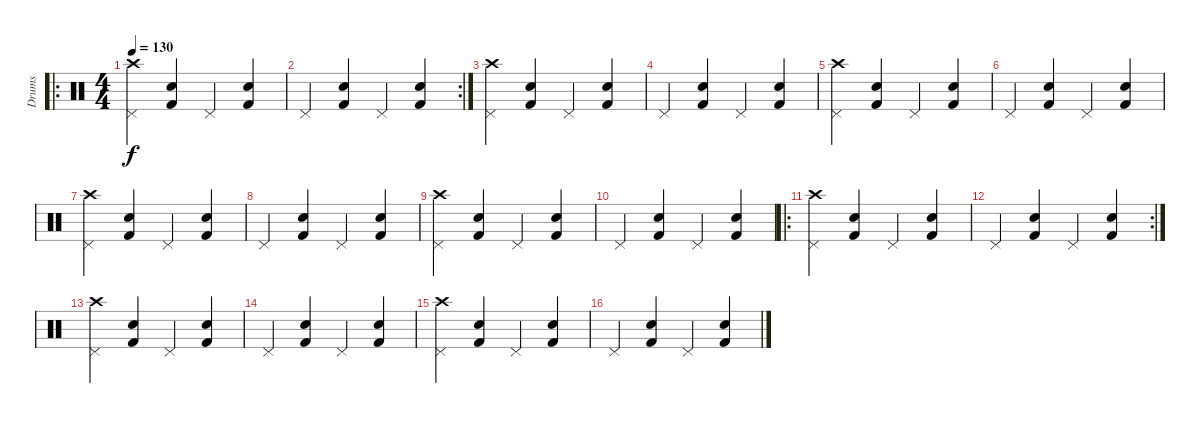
\track ("Drums" "Drums") {instrument percussion}
\staff {score}
\articulation defaults
\ro
\ts (4 4)
\tempo 130
\clef neutral
\ks c
("Crash high (hit)" "Pedal Hi-Hat (hit)").4{dy f} ("Snare (hit) 2" "Kick (hit) 2").4 "Pedal Hi-Hat (hit)".4 ("Snare (hit) 2" "Kick (hit) 2").4 |
\rc 2 "Pedal Hi-Hat (hit)".4
("Snare (hit) 2" "Kick (hit) 2").4 "Pedal Hi-Hat (hit)".4 ("Snare (hit) 2" "Kick (hit) 2").4 |
("Crash high (hit)" "Pedal Hi-Hat (hit)").4 ("Snare (hit) 2" "Kick (hit) 2").4 "Pedal Hi-Hat (hit)".4 ("Snare (hit) 2" "Kick (hit) 2").4 |
"Pedal Hi-Hat (hit)".4 ("Snare (hit) 2" "Kick (hit) 2").4 "Pedal Hi-Hat (hit)".4 ("Snare (hit) 2" "Kick (hit) 2").4 |
("Crash high (hit)" "Pedal Hi-Hat (hit)").4 ("Snare (hit) 2" "Kick (hit) 2").4 "Pedal Hi-Hat (hit)".4 ("Snare (hit) 2" "Kick (hit) 2").4 |
"Pedal Hi-Hat (hit)".4 ("Snare (hit) 2" "Kick (hit) 2").4 "Pedal Hi-Hat (hit)".4 ("Snare (hit) 2" "Kick (hit) 2").4 |
("Crash high (hit)" "Pedal Hi-Hat (hit)").4 ("Snare (hit) 2" "Kick (hit) 2").4 "Pedal Hi-Hat (hit)".4 ("Snare (hit) 2" "Kick (hit) 2").4 |
"Pedal Hi-Hat (hit)".4 ("Snare (hit) 2" "Kick (hit) 2").4 "Pedal Hi-Hat (hit)".4 ("Snare (hit) 2" "Kick (hit) 2").4 |
("Crash high (hit)" "Pedal Hi-Hat (hit)").4 ("Snare (hit) 2" "Kick (hit) 2").4 "Pedal Hi-Hat (hit)".4 ("Snare (hit) 2" "Kick (hit) 2").4 |
"Pedal Hi-Hat (hit)".4 ("Snare (hit) 2" "Kick (hit) 2").4 "Pedal Hi-Hat (hit)".4 ("Snare (hit) 2" "Kick (hit) 2").4 |
\ro
("Crash high (hit)" "Pedal Hi-Hat (hit)").4 ("Snare (hit) 2" "Kick (hit) 2").4 "Pedal Hi-Hat (hit)".4 ("Snare (hit) 2" "Kick (hit) 2").4 |
\rc 2 "Pedal Hi-Hat (hit)".4
("Snare (hit) 2" "Kick (hit) 2").4 "Pedal Hi-Hat (hit)".4 ("Snare (hit) 2" "Kick (hit) 2").4 |
("Crash high (hit)" "Pedal Hi-Hat (hit)").4 ("Snare (hit) 2" "Kick (hit) 2").4 "Pedal Hi-Hat (hit)".4 ("Snare (hit) 2" "Kick (hit) 2").4 |
"Pedal Hi-Hat (hit)".4 ("Snare (hit) 2" "Kick (hit) 2").4 "Pedal Hi-Hat (hit)".4 ("Snare (hit) 2" "Kick (hit) 2").4 |
("Crash high (hit)" "Pedal Hi-Hat (hit)").4 ("Snare (hit) 2" "Kick (hit) 2").4 "Pedal Hi-Hat (hit)".4 ("Snare (hit) 2" "Kick (hit) 2").4 |
"Pedal Hi-Hat (hit)".4 ("Snare (hit) 2" "Kick (hit) 2").4 "Pedal Hi-Hat (hit)".4 ("Snare (hit) 2" "Kick (hit) 2").4
